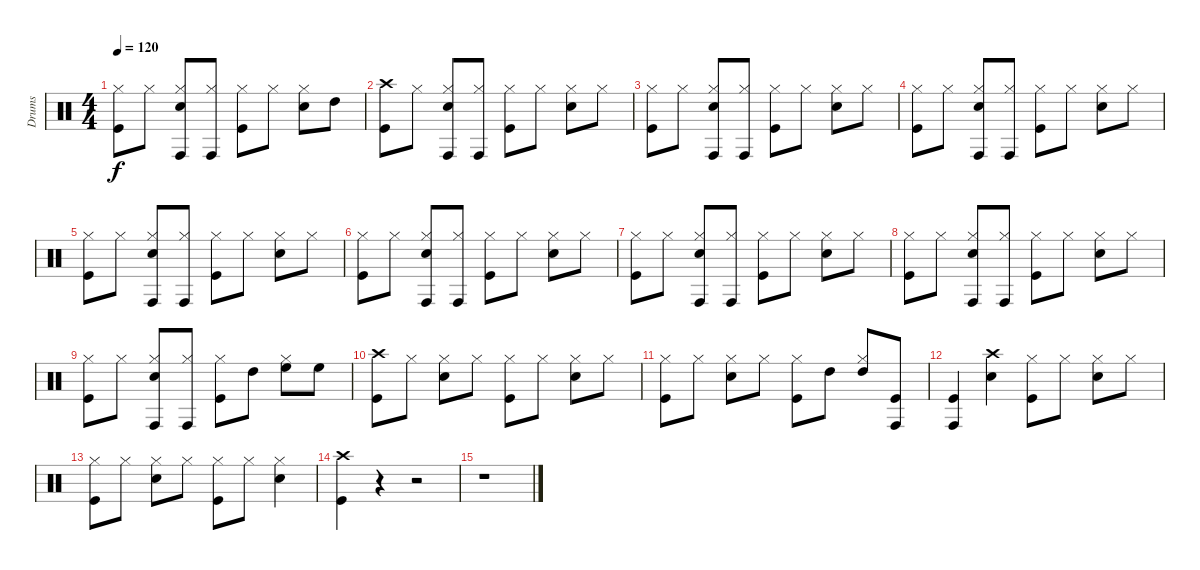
\track ("Drums" "Drums") {instrument percussion}
\staff {score}
\articulation defaults
\ts (4 4)
\tempo 120
\clef neutral
\ks c
("Hi-Hat (closed)" "Kick (hit)").8{dy f} "Hi-Hat (closed)".8 ("Hi-Hat (closed)" "Conga high (hit)" "Snare (hit) 2").8 ("Hi-Hat (closed)" "Conga high (hit)").8 ("Hi-Hat (closed)" "Kick (hit)").8 "Hi-Hat (closed)".8 ("Hi-Hat (closed)" "Snare (hit) 2").8 "High Tom (hit)".8 |
("Crash high (hit)" "Kick (hit)").8 "Hi-Hat (closed)".8 ("Hi-Hat (closed)" "Conga high (hit)" "Snare (hit) 2").8 ("Hi-Hat (closed)" "Conga high (hit)").8 ("Hi-Hat (closed)" "Kick (hit)").8 "Hi-Hat (closed)".8 ("Hi-Hat (closed)" "Snare (hit) 2").8 "Hi-Hat (closed)".8 |
("Hi-Hat (closed)" "Kick (hit)").8 "Hi-Hat (closed)".8 ("Hi-Hat (closed)" "Conga high (hit)" "Snare (hit) 2").8 ("Hi-Hat (closed)" "Conga high (hit)").8 ("Hi-Hat (closed)" "Kick (hit)").8 "Hi-Hat (closed)".8 ("Hi-Hat (closed)" "Snare (hit) 2").8 "Hi-Hat (closed)".8 |
("Hi-Hat (closed)" "Kick (hit)").8 "Hi-Hat (closed)".8 ("Hi-Hat (closed)" "Conga high (hit)" "Snare (hit) 2").8 ("Hi-Hat (closed)" "Conga high (hit)").8 ("Hi-Hat (closed)" "Kick (hit)").8 "Hi-Hat (closed)".8 ("Hi-Hat (closed)" "Snare (hit) 2").8 "Hi-Hat (closed)".8 |
("Hi-Hat (closed)" "Kick (hit)").8 "Hi-Hat (closed)".8 ("Hi-Hat (closed)" "Conga high (hit)" "Snare (hit) 2").8 ("Hi-Hat (closed)" "Conga high (hit)").8 ("Hi-Hat (closed)" "Kick (hit)").8 "Hi-Hat (closed)".8 ("Hi-Hat (closed)" "Snare (hit) 2").8 "Hi-Hat (closed)".8 |
("Hi-Hat (closed)" "Kick (hit)").8 "Hi-Hat (closed)".8 ("Hi-Hat (closed)" "Conga high (hit)" "Snare (hit) 2").8 ("Hi-Hat (closed)" "Conga high (hit)").8 ("Hi-Hat (closed)" "Kick (hit)").8 "Hi-Hat (closed)".8 ("Hi-Hat (closed)" "Snare (hit) 2").8 "Hi-Hat (closed)".8 |
("Hi-Hat (closed)" "Kick (hit)").8 "Hi-Hat (closed)".8 ("Hi-Hat (closed)" "Conga high (hit)" "Snare (hit) 2").8 ("Hi-Hat (closed)" "Conga high (hit)").8 ("Hi-Hat (closed)" "Kick (hit)").8 "Hi-Hat (closed)".8 ("Hi-Hat (closed)" "Snare (hit) 2").8 "Hi-Hat (closed)".8 |
("Hi-Hat (closed)" "Kick (hit)").8 "Hi-Hat (closed)".8 ("Hi-Hat (closed)" "Conga high (hit)" "Snare (hit) 2").8 ("Hi-Hat (closed)" "Conga high (hit)").8 ("Hi-Hat (closed)" "Kick (hit)").8 "Hi-Hat (closed)".8 ("Hi-Hat (closed)" "Snare (hit) 2").8 "Hi-Hat (closed)".8 |
("Hi-Hat (closed)" "Kick (hit)").8 "Hi-Hat (closed)".8 ("Hi-Hat (closed)" "Conga high (hit)" "Snare (hit) 2").8 ("Hi-Hat (closed)" "Conga high (hit)").8 ("Hi-Hat (closed)" "Kick (hit)").8 "High Tom (hit)".8 ("Hi-Hat (closed)" "High Floor Tom (hit)").8 "High Floor Tom (hit)".8 |
("Crash high (hit)" "Kick (hit)").8 "Hi-Hat (closed)".8 ("Hi-Hat (closed)" "Snare (hit) 2").8 "Hi-Hat (closed)".8 ("Hi-Hat (closed)" "Kick (hit)").8 "Hi-Hat (closed)".8 ("Hi-Hat (closed)" "Snare (hit) 2").8 "Hi-Hat (closed)".8 |
("Hi-Hat (closed)" "Kick (hit)").8 "Hi-Hat (closed)".8 ("Hi-Hat (closed)" "Snare (hit) 2").8 "Hi-Hat (closed)".8 ("Hi-Hat (closed)" "Kick (hit)").8 "High Tom (hit)".8 ("Hi-Hat (closed)" "High Tom (hit)").8 ("Conga high (hit)" "Kick (hit)").8 |
("Conga high (hit)" "Kick (hit)").4 ("Crash high (hit)" "Snare (hit) 2").4 ("Hi-Hat (closed)" "Kick (hit)").8 "Hi-Hat (closed)".8 ("Hi-Hat (closed)" "Snare (hit) 2").8 "Hi-Hat (closed)".8 |
("Hi-Hat (closed)" "Kick (hit)").8 "Hi-Hat (closed)".8 ("Hi-Hat (closed)" "Snare (hit) 2").8 "Hi-Hat (closed)".8 ("Hi-Hat (closed)" "Kick (hit)").8 "Hi-Hat (closed)".8 ("Hi-Hat (closed)" "Snare (hit) 2").4 |
("Crash high (hit)" "Kick (hit)").4 r.4 r.2 |
r.1
